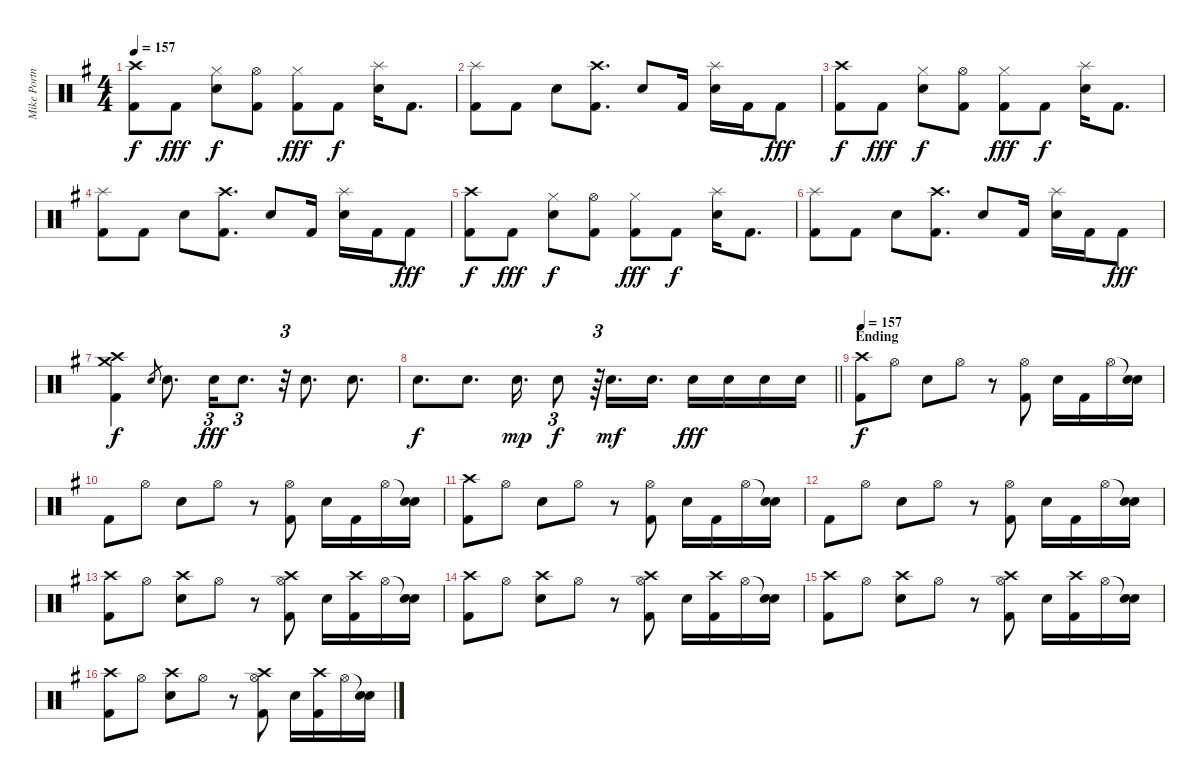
\track ("Mike Portnoy" "Mike Portn") {instrument percussion}
\staff {score}
\articulation defaults
\ts (4 4)
\tempo 157
\clef neutral
\ks g
("Kick (hit) 2" "Crash high (hit)").8{dy f} "Kick (hit) 2".8{dy fff} ("Snare (hit) 2" "Hi-Hat (closed)").8{dy f} ("Kick (hit) 2" "Hi-Hat (open)").8 ("Kick (hit) 2" "Hi-Hat (closed)").8{dy fff} "Kick (hit) 2".8{dy f} ("Snare (hit) 2" "Splash (hit)").16 "Kick (hit) 2".8{d} |
("Kick (hit) 2" "Splash (hit)").8 "Kick (hit) 2".8 "Snare (hit) 2".8 ("Kick (hit) 2" "Crash high (hit)").8{d} "Snare (hit) 2".8 "Kick (hit) 2".16 ("Snare (hit) 2" "Splash (hit)").16 "Kick (hit) 2".16 "Kick (hit) 2".8{dy fff} |
("Kick (hit) 2" "Crash high (hit)").8{dy f} "Kick (hit) 2".8{dy fff} ("Snare (hit) 2" "Hi-Hat (closed)").8{dy f} ("Kick (hit) 2" "Hi-Hat (open)").8 ("Kick (hit) 2" "Hi-Hat (closed)").8{dy fff} "Kick (hit) 2".8{dy f} ("Snare (hit) 2" "Splash (hit)").16 "Kick (hit) 2".8{d} |
("Kick (hit) 2" "Splash (hit)").8 "Kick (hit) 2".8 "Snare (hit) 2".8 ("Kick (hit) 2" "Crash high (hit)").8{d} "Snare (hit) 2".8 "Kick (hit) 2".16 ("Snare (hit) 2" "Splash (hit)").16 "Kick (hit) 2".16 "Kick (hit) 2".8{dy fff} |
("Kick (hit) 2" "Crash high (hit)").8{dy f} "Kick (hit) 2".8{dy fff} ("Snare (hit) 2" "Hi-Hat (closed)").8{dy f} ("Kick (hit) 2" "Hi-Hat (open)").8 ("Kick (hit) 2" "Hi-Hat (closed)").8{dy fff} "Kick (hit) 2".8{dy f} ("Snare (hit) 2" "Splash (hit)").16 "Kick (hit) 2".8{d} |
("Kick (hit) 2" "Splash (hit)").8 "Kick (hit) 2".8 "Snare (hit) 2".8 ("Kick (hit) 2" "Crash high (hit)").8{d} "Snare (hit) 2".8 "Kick (hit) 2".16 ("Snare (hit) 2" "Splash (hit)").16 "Kick (hit) 2".16 "Kick (hit) 2".8{dy fff} |
("Crash high (hit)" "Crash medium (hit)" "Kick (hit) 2").4{dy f} "Snare (hit) 2".8{gr} "Snare (hit) 2".8{d} "Snare (hit) 2".16{tu (3 2) dy fff} "Snare (hit) 2".8{d tu (3 2)} r.32{tu (3 2)} "Snare (hit) 2".8{d} "Snare (hit) 2".8{d} |
\barLineRight lightlight "Snare (hit) 2".8{d dy f} "Snare (hit) 2".8{d} "Snare (hit) 2".16{d dy mp} "Snare (hit) 2".8{tu (3 2) dy f}
r.64{tu (3 2)} "Snare (hit) 2".16{d dy mf} "Snare (hit) 2".16{d} "Snare (hit) 2".16{dy fff} "Snare (hit) 2".16 "Snare (hit) 2".16 "Snare (hit) 2".16 |
\section ("" "Ending")
\tempo 157
("Kick (hit) 2" "Crash high (hit)").8{dy f} "Hi-Hat (open)".8 "Snare (hit) 2".8 "Hi-Hat (open)".8 r.8 ("Kick (hit) 2" "Hi-Hat (open)").8 "Snare (hit) 2".16 "Kick (hit) 2".16 "Hi-Hat (open)".16 ("Snare (hit)"{t} "Snare (hit) 2").16 |
"Kick (hit) 2".8 "Hi-Hat (open)".8 "Snare (hit) 2".8 "Hi-Hat (open)".8 r.8 ("Kick (hit) 2" "Hi-Hat (open)").8 "Snare (hit) 2".16 "Kick (hit) 2".16 "Hi-Hat (open)".16 ("Snare (hit)"{t} "Snare (hit) 2").16 |
("Kick (hit) 2" "Crash high (hit)").8 "Hi-Hat (open)".8 "Snare (hit) 2".8 "Hi-Hat (open)".8 r.8 ("Kick (hit) 2" "Hi-Hat (open)").8 "Snare (hit) 2".16 "Kick (hit) 2".16 "Hi-Hat (open)".16 ("Snare (hit)"{t} "Snare (hit) 2").16 |
"Kick (hit) 2".8 "Hi-Hat (open)".8 "Snare (hit) 2".8 "Hi-Hat (open)".8 r.8 ("Kick (hit) 2" "Hi-Hat (open)").8 "Snare (hit) 2".16 "Kick (hit) 2".16 "Hi-Hat (open)".16 ("Snare (hit)"{t} "Snare (hit) 2").16 |
("Kick (hit) 2" "Crash high (hit)").8 "Hi-Hat (open)".8 ("Snare (hit) 2" "Crash high (hit)").8 "Hi-Hat (open)".8 r.8 ("Kick (hit) 2" "Hi-Hat (open)" "Crash high (hit)").8 "Snare (hit) 2".16 ("Kick (hit) 2" "Crash high (hit)").16 "Hi-Hat (open)".16 ("Snare (hit)"{t} "Snare (hit) 2").16 |
("Kick (hit) 2" "Crash high (hit)").8 "Hi-Hat (open)".8 ("Snare (hit) 2" "Crash high (hit)").8 "Hi-Hat (open)".8 r.8 ("Kick (hit) 2" "Hi-Hat (open)" "Crash high (hit)").8 "Snare (hit) 2".16 ("Kick (hit) 2" "Crash high (hit)").16 "Hi-Hat (open)".16 ("Snare (hit)"{t} "Snare (hit) 2").16 |
("Kick (hit) 2" "Crash high (hit)").8 "Hi-Hat (open)".8 ("Snare (hit) 2" "Crash high (hit)").8 "Hi-Hat (open)".8 r.8 ("Kick (hit) 2" "Hi-Hat (open)" "Crash high (hit)").8 "Snare (hit) 2".16 ("Kick (hit) 2" "Crash high (hit)").16 "Hi-Hat (open)".16 ("Snare (hit)"{t} "Snare (hit) 2").16 |
("Kick (hit) 2" "Crash high (hit)").8 "Hi-Hat (open)".8 ("Snare (hit) 2" "Crash high (hit)").8 "Hi-Hat (open)".8 r.8 ("Kick (hit) 2" "Hi-Hat (open)" "Crash high (hit)").8 "Snare (hit) 2".16 ("Kick (hit) 2" "Crash high (hit)").16 "Hi-Hat (open)".16 ("Snare (hit)"{t} "Snare (hit) 2").16
